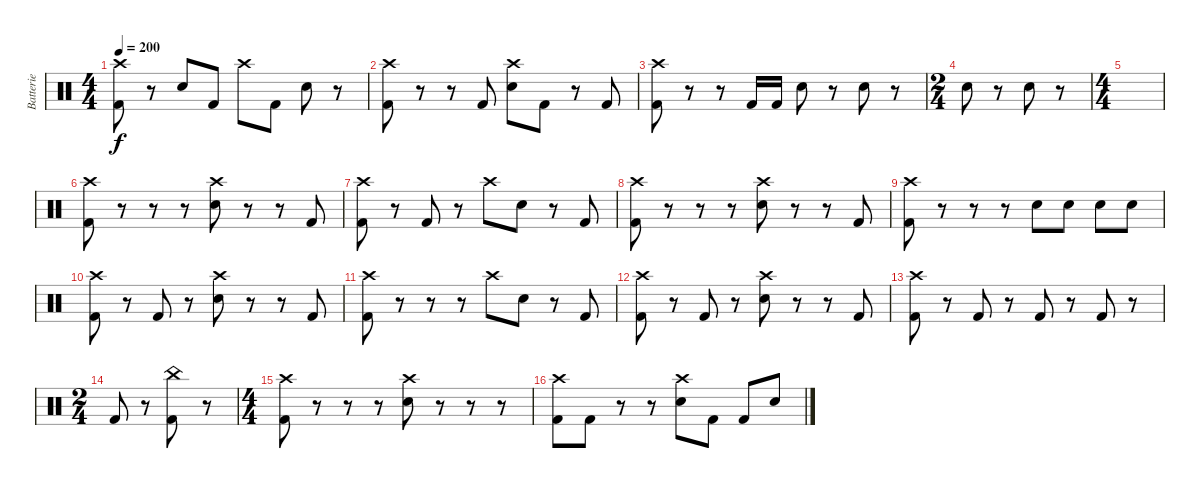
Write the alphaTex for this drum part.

\track ("Batterie" "Batterie") {instrument percussion}
\staff {score}
\articulation defaults
\ts (4 4)
\tempo 200
\clef neutral
\ks c
("Crash high (hit)" "Kick (hit) 2").8{dy f} r.8 "Electric Snare (hit)".8 "Kick (hit) 2".8 "Crash high (hit)".8 "Kick (hit) 2".8 "Electric Snare (hit)".8 r.8 |
("Crash high (hit)" "Kick (hit) 2").8 r.8 r.8 "Kick (hit) 2".8 ("Crash high (hit)" "Electric Snare (hit)").8 "Kick (hit) 2".8 r.8 "Kick (hit) 2".8 |
("Crash high (hit)" "Kick (hit) 2").8 r.8 r.8 "Kick (hit) 2".16 "Kick (hit) 2".16 "Electric Snare (hit)".8 r.8 "Electric Snare (hit)".8 r.8 |
\ts (2 4)
"Electric Snare (hit)".8 r.8 "Electric Snare (hit)".8 r.8 |
\ts (4 4)
|
("Crash high (hit)" "Kick (hit) 2").8 r.8 r.8 r.8 ("Crash high (hit)" "Electric Snare (hit)").8 r.8 r.8 "Kick (hit) 2".8 |
("Crash high (hit)" "Kick (hit) 2").8 r.8 "Kick (hit) 2".8 r.8 "Crash high (hit)".8 "Electric Snare (hit)".8 r.8 "Kick (hit) 2".8 |
("Crash high (hit)" "Kick (hit) 2").8 r.8 r.8 r.8 ("Crash high (hit)" "Electric Snare (hit)").8 r.8 r.8 "Kick (hit) 2".8 |
("Crash high (hit)" "Kick (hit) 2").8 r.8 r.8 r.8 "Electric Snare (hit)".8 "Electric Snare (hit)".8 "Electric Snare (hit)".8 "Electric Snare (hit)".8 |
("Crash high (hit)" "Kick (hit) 2").8 r.8 "Kick (hit) 2".8 r.8 ("Crash high (hit)" "Electric Snare (hit)").8 r.8 r.8 "Kick (hit) 2".8 |
("Crash high (hit)" "Kick (hit) 2").8 r.8 r.8 r.8 "Crash high (hit)".8 "Electric Snare (hit)".8 r.8 "Kick (hit) 2".8 |
("Crash high (hit)" "Kick (hit) 2").8 r.8 "Kick (hit) 2".8 r.8 ("Crash high (hit)" "Electric Snare (hit)").8 r.8 r.8 "Kick (hit) 2".8 |
("Crash high (hit)" "Kick (hit) 2").8 r.8 "Kick (hit) 2".8 r.8 "Kick (hit) 2".8 r.8 "Kick (hit) 2".8 r.8 |
\ts (2 4)
"Kick (hit) 2".8 r.8 ("China (hit)" "Kick (hit) 2").8 r.8 |
\ts (4 4)
("Crash high (hit)" "Kick (hit) 2").8 r.8 r.8 r.8 ("Crash high (hit)" "Electric Snare (hit)").8 r.8 r.8 r.8 |
("Crash high (hit)" "Kick (hit) 2").8 "Kick (hit) 2".8 r.8 r.8 ("Crash high (hit)" "Electric Snare (hit)").8 "Kick (hit) 2".8 "Kick (hit) 2".8 "Electric Snare (hit)".8
